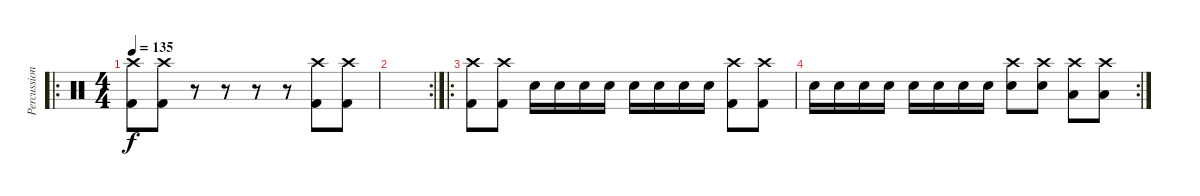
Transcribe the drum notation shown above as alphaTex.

\track ("Percussions" "Percussion") {instrument percussion}
\staff {score}
\articulation defaults
\ro
\ts (4 4)
\tempo 135
\clef neutral
\ks c
("Crash high (hit)" "Kick (hit) 2").8{dy f} ("Crash high (hit)" "Kick (hit) 2").8 r.8 r.8 r.8 r.8 ("Crash high (hit)" "Kick (hit) 2").8 ("Crash high (hit)" "Kick (hit) 2").8 |
\rc 2
|
\ro
("Crash high (hit)" "Kick (hit) 2").8 ("Crash high (hit)" "Kick (hit) 2").8 "Snare (hit) 2".16 "Snare (hit) 2".16 "Snare (hit) 2".16 "Snare (hit) 2".16 "Snare (hit) 2".16 "Snare (hit) 2".16 "Snare (hit) 2".16 "Snare (hit) 2".16 ("Crash high (hit)" "Kick (hit) 2").8 ("Crash high (hit)" "Kick (hit) 2").8 |
\rc 2 "Snare (hit) 2".16 "Snare (hit) 2".16 "Snare (hit) 2".16 "Snare (hit) 2".16 "Snare (hit) 2".16 "Snare (hit) 2".16 "Snare (hit) 2".16 "Snare (hit) 2".16
("Crash high (hit)" "Snare (hit) 2").8 ("Crash high (hit)" "Snare (hit) 2").8 ("Crash high (hit)" "Low Tom (hit)").8 ("Crash high (hit)" "Low Tom (hit)").8
